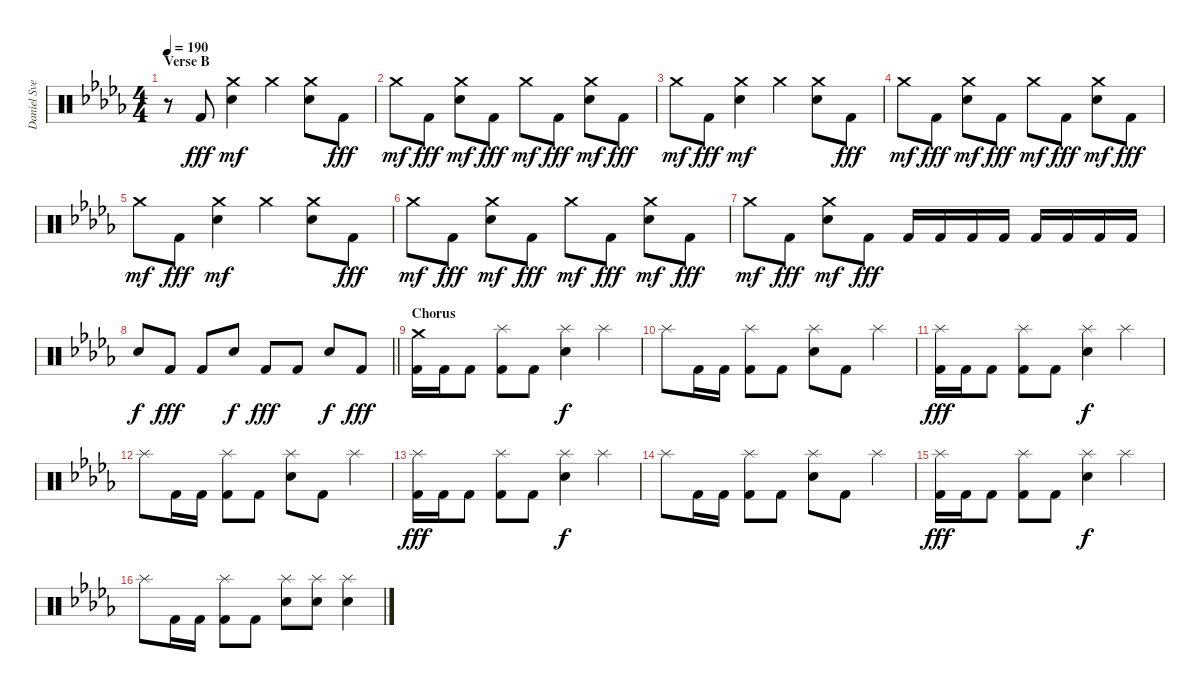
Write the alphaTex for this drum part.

\track ("Daniel Svensson" "Daniel Sve") {instrument percussion}
\staff {score}
\articulation defaults
\ts (4 4)
\section ("" "Verse B")
\tempo 190
\clef neutral
\ks db
r.8{dy fff} "Kick (hit) 2".8 ("Crash medium (hit)" "Electric Snare (hit)").4{dy mf} "Crash medium (hit)".4 ("Crash medium (hit)" "Electric Snare (hit)").8 "Kick (hit) 2".8{dy fff} |
"Crash medium (hit)".8{dy mf} "Kick (hit) 2".8{dy fff} ("Crash medium (hit)" "Electric Snare (hit)").8{dy mf} "Kick (hit) 2".8{dy fff} "Crash medium (hit)".8{dy mf} "Kick (hit) 2".8{dy fff} ("Crash medium (hit)" "Electric Snare (hit)").8{dy mf} "Kick (hit) 2".8{dy fff} |
"Crash medium (hit)".8{dy mf} "Kick (hit) 2".8{dy fff} ("Crash medium (hit)" "Electric Snare (hit)").4{dy mf} "Crash medium (hit)".4 ("Crash medium (hit)" "Electric Snare (hit)").8 "Kick (hit) 2".8{dy fff} |
"Crash medium (hit)".8{dy mf} "Kick (hit) 2".8{dy fff} ("Crash medium (hit)" "Electric Snare (hit)").8{dy mf} "Kick (hit) 2".8{dy fff} "Crash medium (hit)".8{dy mf} "Kick (hit) 2".8{dy fff} ("Crash medium (hit)" "Electric Snare (hit)").8{dy mf} "Kick (hit) 2".8{dy fff} |
"Crash medium (hit)".8{dy mf} "Kick (hit) 2".8{dy fff} ("Crash medium (hit)" "Electric Snare (hit)").4{dy mf} "Crash medium (hit)".4 ("Crash medium (hit)" "Electric Snare (hit)").8 "Kick (hit) 2".8{dy fff} |
"Crash medium (hit)".8{dy mf} "Kick (hit) 2".8{dy fff} ("Crash medium (hit)" "Electric Snare (hit)").8{dy mf} "Kick (hit) 2".8{dy fff} "Crash medium (hit)".8{dy mf} "Kick (hit) 2".8{dy fff} ("Crash medium (hit)" "Electric Snare (hit)").8{dy mf} "Kick (hit) 2".8{dy fff} |
"Crash medium (hit)".8{dy mf} "Kick (hit) 2".8{dy fff} ("Crash medium (hit)" "Electric Snare (hit)").8{dy mf} "Kick (hit) 2".8{dy fff} "Kick (hit) 2".16 "Kick (hit) 2".16 "Kick (hit) 2".16 "Kick (hit) 2".16 "Kick (hit) 2".16 "Kick (hit) 2".16 "Kick (hit) 2".16 "Kick (hit) 2".16 |
\barLineRight lightlight "Electric Snare (hit)".8{dy f} "Kick (hit) 2".8{dy fff} "Kick (hit) 2".8 "Electric Snare (hit)".8{dy f} "Kick (hit) 2".8{dy fff} "Kick (hit) 2".8 "Electric Snare (hit)".8{dy f} "Kick (hit) 2".8{dy fff}
|
\section ("" "Chorus")
("Crash medium (hit)" "Kick (hit) 2").16 "Kick (hit) 2".16 "Kick (hit) 2".8 ("Splash (hit)" "Kick (hit) 2").8 "Kick (hit) 2".8 ("Splash (hit)" "Electric Snare (hit)").4{dy f} "Splash (hit)".4 |
"Splash (hit)".8 "Kick (hit) 2".16 "Kick (hit) 2".16 ("Splash (hit)" "Kick (hit) 2").8 "Kick (hit) 2".8 ("Splash (hit)" "Electric Snare (hit)").8 "Kick (hit) 2".8 "Splash (hit)".4 |
("Splash (hit)" "Kick (hit) 2").16{dy fff} "Kick (hit) 2".16 "Kick (hit) 2".8 ("Splash (hit)" "Kick (hit) 2").8 "Kick (hit) 2".8 ("Splash (hit)" "Electric Snare (hit)").4{dy f} "Splash (hit)".4 |
"Splash (hit)".8 "Kick (hit) 2".16 "Kick (hit) 2".16 ("Splash (hit)" "Kick (hit) 2").8 "Kick (hit) 2".8 ("Splash (hit)" "Electric Snare (hit)").8 "Kick (hit) 2".8 "Splash (hit)".4 |
("Splash (hit)" "Kick (hit) 2").16{dy fff} "Kick (hit) 2".16 "Kick (hit) 2".8 ("Splash (hit)" "Kick (hit) 2").8 "Kick (hit) 2".8 ("Splash (hit)" "Electric Snare (hit)").4{dy f} "Splash (hit)".4 |
"Splash (hit)".8 "Kick (hit) 2".16 "Kick (hit) 2".16 ("Splash (hit)" "Kick (hit) 2").8 "Kick (hit) 2".8 ("Splash (hit)" "Electric Snare (hit)").8 "Kick (hit) 2".8 "Splash (hit)".4 |
("Splash (hit)" "Kick (hit) 2").16{dy fff} "Kick (hit) 2".16 "Kick (hit) 2".8 ("Splash (hit)" "Kick (hit) 2").8 "Kick (hit) 2".8 ("Splash (hit)" "Electric Snare (hit)").4{dy f} "Splash (hit)".4 |
"Splash (hit)".8 "Kick (hit) 2".16 "Kick (hit) 2".16 ("Splash (hit)" "Kick (hit) 2").8 "Kick (hit) 2".8 ("Splash (hit)" "Electric Snare (hit)").8 ("Splash (hit)" "Electric Snare (hit)").8 ("Splash (hit)" "Electric Snare (hit)").4
